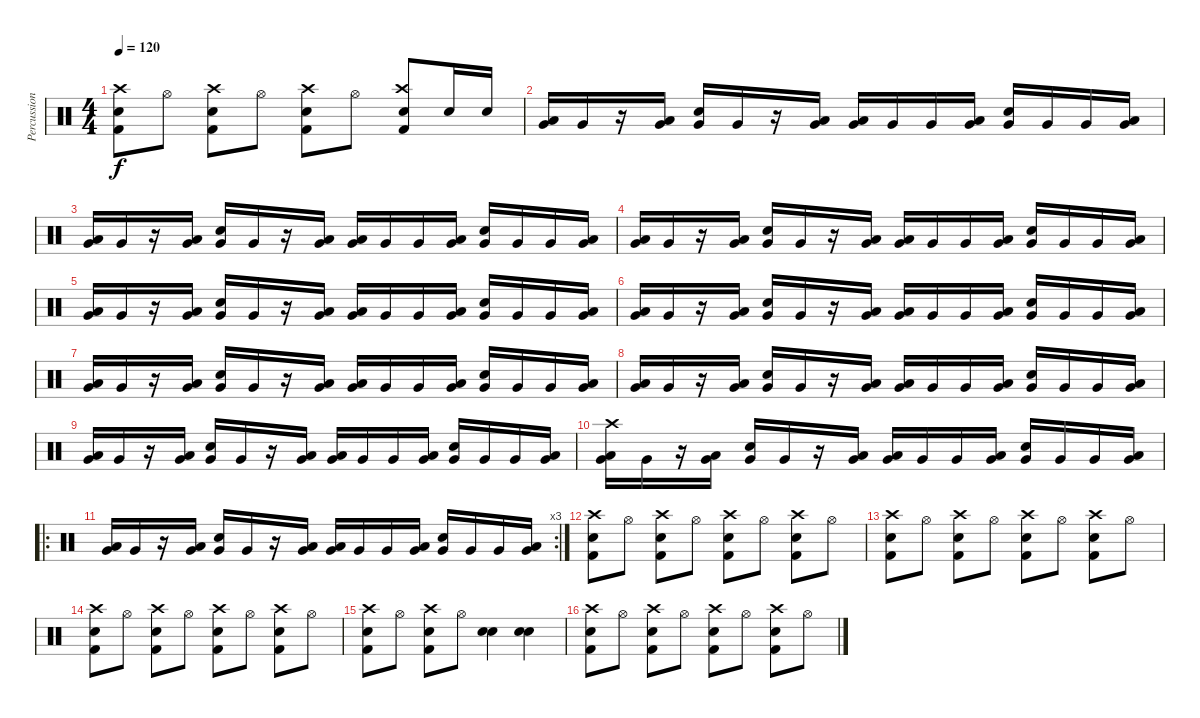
\track ("Percussions" "Percussion") {instrument percussion}
\staff {score}
\articulation defaults
\ts (4 4)
\tempo 120
\clef neutral
\ks c
("Snare (hit) 2" "Crash high (hit)" "Kick (hit) 2").8{dy f} "Hi-Hat (open)".8 ("Snare (hit) 2" "Crash high (hit)" "Kick (hit) 2").8 "Hi-Hat (open)".8 ("Snare (hit) 2" "Crash high (hit)" "Kick (hit) 2").8 "Hi-Hat (open)".8 ("Snare (hit) 2" "Crash high (hit)" "Kick (hit) 2").8 "Snare (hit) 2".16 "Snare (hit) 2".16 |
("Low Floor Tom (hit)" "Very Low Tom (hit)").16 "Very Low Tom (hit)".16 r.16 ("Low Floor Tom (hit)" "Very Low Tom (hit)").16 ("Snare (hit) 2" "Very Low Tom (hit)").16 "Very Low Tom (hit)".16 r.16 ("Low Floor Tom (hit)" "Very Low Tom (hit)").16 ("Low Floor Tom (hit)" "Very Low Tom (hit)").16 "Very Low Tom (hit)".16 "Very Low Tom (hit)".16 ("Low Floor Tom (hit)" "Very Low Tom (hit)").16 ("Snare (hit) 2" "Very Low Tom (hit)").16 "Very Low Tom (hit)".16 "Very Low Tom (hit)".16 ("Low Floor Tom (hit)" "Very Low Tom (hit)").16 |
("Low Floor Tom (hit)" "Very Low Tom (hit)").16 "Very Low Tom (hit)".16 r.16 ("Low Floor Tom (hit)" "Very Low Tom (hit)").16 ("Snare (hit) 2" "Very Low Tom (hit)").16 "Very Low Tom (hit)".16 r.16 ("Low Floor Tom (hit)" "Very Low Tom (hit)").16 ("Low Floor Tom (hit)" "Very Low Tom (hit)").16 "Very Low Tom (hit)".16 "Very Low Tom (hit)".16 ("Low Floor Tom (hit)" "Very Low Tom (hit)").16 ("Snare (hit) 2" "Very Low Tom (hit)").16 "Very Low Tom (hit)".16 "Very Low Tom (hit)".16 ("Low Floor Tom (hit)" "Very Low Tom (hit)").16 |
("Low Floor Tom (hit)" "Very Low Tom (hit)").16 "Very Low Tom (hit)".16 r.16 ("Low Floor Tom (hit)" "Very Low Tom (hit)").16 ("Snare (hit) 2" "Very Low Tom (hit)").16 "Very Low Tom (hit)".16 r.16 ("Low Floor Tom (hit)" "Very Low Tom (hit)").16 ("Low Floor Tom (hit)" "Very Low Tom (hit)").16 "Very Low Tom (hit)".16 "Very Low Tom (hit)".16 ("Low Floor Tom (hit)" "Very Low Tom (hit)").16 ("Snare (hit) 2" "Very Low Tom (hit)").16 "Very Low Tom (hit)".16 "Very Low Tom (hit)".16 ("Low Floor Tom (hit)" "Very Low Tom (hit)").16 |
("Low Floor Tom (hit)" "Very Low Tom (hit)").16 "Very Low Tom (hit)".16 r.16 ("Low Floor Tom (hit)" "Very Low Tom (hit)").16 ("Snare (hit) 2" "Very Low Tom (hit)").16 "Very Low Tom (hit)".16 r.16 ("Low Floor Tom (hit)" "Very Low Tom (hit)").16 ("Low Floor Tom (hit)" "Very Low Tom (hit)").16 "Very Low Tom (hit)".16 "Very Low Tom (hit)".16 ("Low Floor Tom (hit)" "Very Low Tom (hit)").16 ("Snare (hit) 2" "Very Low Tom (hit)").16 "Very Low Tom (hit)".16 "Very Low Tom (hit)".16 ("Low Floor Tom (hit)" "Very Low Tom (hit)").16 |
("Low Floor Tom (hit)" "Very Low Tom (hit)").16 "Very Low Tom (hit)".16 r.16 ("Low Floor Tom (hit)" "Very Low Tom (hit)").16 ("Snare (hit) 2" "Very Low Tom (hit)").16 "Very Low Tom (hit)".16 r.16 ("Low Floor Tom (hit)" "Very Low Tom (hit)").16 ("Low Floor Tom (hit)" "Very Low Tom (hit)").16 "Very Low Tom (hit)".16 "Very Low Tom (hit)".16 ("Low Floor Tom (hit)" "Very Low Tom (hit)").16 ("Snare (hit) 2" "Very Low Tom (hit)").16 "Very Low Tom (hit)".16 "Very Low Tom (hit)".16 ("Low Floor Tom (hit)" "Very Low Tom (hit)").16 |
("Low Floor Tom (hit)" "Very Low Tom (hit)").16 "Very Low Tom (hit)".16 r.16 ("Low Floor Tom (hit)" "Very Low Tom (hit)").16 ("Snare (hit) 2" "Very Low Tom (hit)").16 "Very Low Tom (hit)".16 r.16 ("Low Floor Tom (hit)" "Very Low Tom (hit)").16 ("Low Floor Tom (hit)" "Very Low Tom (hit)").16 "Very Low Tom (hit)".16 "Very Low Tom (hit)".16 ("Low Floor Tom (hit)" "Very Low Tom (hit)").16 ("Snare (hit) 2" "Very Low Tom (hit)").16 "Very Low Tom (hit)".16 "Very Low Tom (hit)".16 ("Low Floor Tom (hit)" "Very Low Tom (hit)").16 |
("Low Floor Tom (hit)" "Very Low Tom (hit)").16 "Very Low Tom (hit)".16 r.16 ("Low Floor Tom (hit)" "Very Low Tom (hit)").16 ("Snare (hit) 2" "Very Low Tom (hit)").16 "Very Low Tom (hit)".16 r.16 ("Low Floor Tom (hit)" "Very Low Tom (hit)").16 ("Low Floor Tom (hit)" "Very Low Tom (hit)").16 "Very Low Tom (hit)".16 "Very Low Tom (hit)".16 ("Low Floor Tom (hit)" "Very Low Tom (hit)").16 ("Snare (hit) 2" "Very Low Tom (hit)").16 "Very Low Tom (hit)".16 "Very Low Tom (hit)".16 ("Low Floor Tom (hit)" "Very Low Tom (hit)").16 |
("Low Floor Tom (hit)" "Very Low Tom (hit)").16 "Very Low Tom (hit)".16 r.16 ("Low Floor Tom (hit)" "Very Low Tom (hit)").16 ("Snare (hit) 2" "Very Low Tom (hit)").16 "Very Low Tom (hit)".16 r.16 ("Low Floor Tom (hit)" "Very Low Tom (hit)").16 ("Low Floor Tom (hit)" "Very Low Tom (hit)").16 "Very Low Tom (hit)".16 "Very Low Tom (hit)".16 ("Low Floor Tom (hit)" "Very Low Tom (hit)").16 ("Snare (hit) 2" "Very Low Tom (hit)").16 "Very Low Tom (hit)".16 "Very Low Tom (hit)".16 ("Low Floor Tom (hit)" "Very Low Tom (hit)").16 |
("Low Floor Tom (hit)" "Crash high (hit)" "Very Low Tom (hit)").16 "Very Low Tom (hit)".16 r.16 ("Low Floor Tom (hit)" "Very Low Tom (hit)").16 ("Snare (hit) 2" "Very Low Tom (hit)").16 "Very Low Tom (hit)".16 r.16 ("Low Floor Tom (hit)" "Very Low Tom (hit)").16 ("Low Floor Tom (hit)" "Very Low Tom (hit)").16 "Very Low Tom (hit)".16 "Very Low Tom (hit)".16 ("Low Floor Tom (hit)" "Very Low Tom (hit)").16 ("Snare (hit) 2" "Very Low Tom (hit)").16 "Very Low Tom (hit)".16 "Very Low Tom (hit)".16 ("Low Floor Tom (hit)" "Very Low Tom (hit)").16 |
\ro
\rc 3
("Low Floor Tom (hit)" "Very Low Tom (hit)").16 "Very Low Tom (hit)".16 r.16 ("Low Floor Tom (hit)" "Very Low Tom (hit)").16 ("Snare (hit) 2" "Very Low Tom (hit)").16 "Very Low Tom (hit)".16 r.16 ("Low Floor Tom (hit)" "Very Low Tom (hit)").16 ("Low Floor Tom (hit)" "Very Low Tom (hit)").16 "Very Low Tom (hit)".16 "Very Low Tom (hit)".16 ("Low Floor Tom (hit)" "Very Low Tom (hit)").16 ("Snare (hit) 2" "Very Low Tom (hit)").16 "Very Low Tom (hit)".16 "Very Low Tom (hit)".16 ("Low Floor Tom (hit)" "Very Low Tom (hit)").16 |
("Snare (hit) 2" "Crash high (hit)" "Kick (hit) 2").8 "Hi-Hat (open)".8 ("Snare (hit) 2" "Crash high (hit)" "Kick (hit) 2").8 "Hi-Hat (open)".8 ("Snare (hit) 2" "Crash high (hit)" "Kick (hit) 2").8 "Hi-Hat (open)".8 ("Snare (hit) 2" "Crash high (hit)" "Kick (hit) 2").8 "Hi-Hat (open)".8 |
("Snare (hit) 2" "Crash high (hit)" "Kick (hit) 2").8 "Hi-Hat (open)".8 ("Snare (hit) 2" "Crash high (hit)" "Kick (hit) 2").8 "Hi-Hat (open)".8 ("Snare (hit) 2" "Crash high (hit)" "Kick (hit) 2").8 "Hi-Hat (open)".8 ("Snare (hit) 2" "Crash high (hit)" "Kick (hit) 2").8 "Hi-Hat (open)".8 |
("Snare (hit) 2" "Crash high (hit)" "Kick (hit) 2").8 "Hi-Hat (open)".8 ("Snare (hit) 2" "Crash high (hit)" "Kick (hit) 2").8 "Hi-Hat (open)".8 ("Snare (hit) 2" "Crash high (hit)" "Kick (hit) 2").8 "Hi-Hat (open)".8 ("Snare (hit) 2" "Crash high (hit)" "Kick (hit) 2").8 "Hi-Hat (open)".8 |
("Snare (hit) 2" "Crash high (hit)" "Kick (hit) 2").8 "Hi-Hat (open)".8 ("Snare (hit) 2" "Crash high (hit)" "Kick (hit) 2").8 "Hi-Hat (open)".8 ("Snare (hit) 2" "Snare (hit) 2").4 ("Snare (hit) 2" "Snare (hit) 2").4 |
("Snare (hit) 2" "Crash high (hit)" "Kick (hit) 2").8 "Hi-Hat (open)".8 ("Snare (hit) 2" "Crash high (hit)" "Kick (hit) 2").8 "Hi-Hat (open)".8 ("Snare (hit) 2" "Crash high (hit)" "Kick (hit) 2").8 "Hi-Hat (open)".8 ("Snare (hit) 2" "Crash high (hit)" "Kick (hit) 2").8 "Hi-Hat (open)".8
